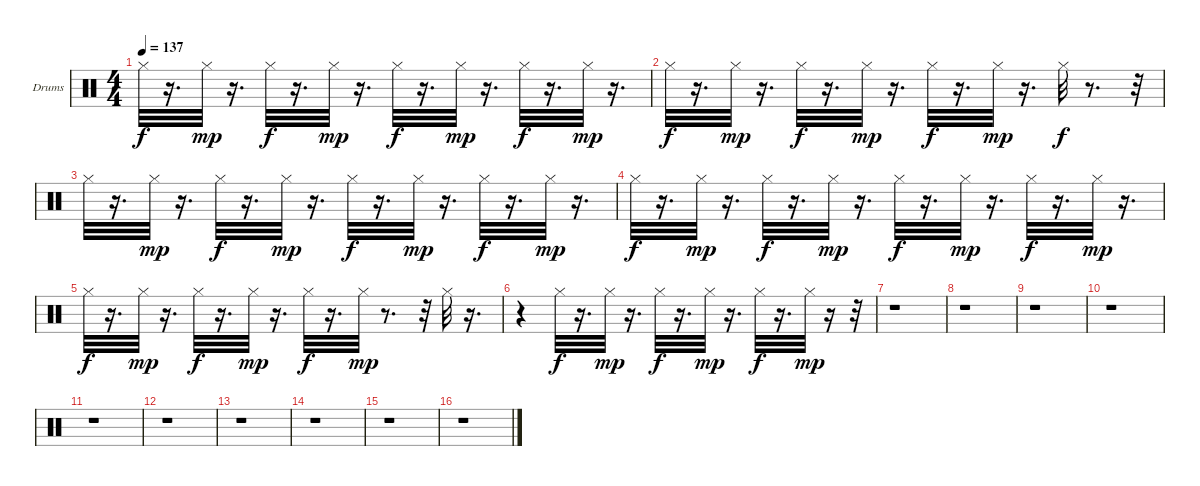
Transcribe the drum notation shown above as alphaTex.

\bracketExtendMode groupsimilarinstruments
\firstSystemTrackNameOrientation horizontal
\otherSystemsTrackNameOrientation horizontal
\track ("Drumkit" "Drums") {instrument percussion}
\staff {score}
\articulation defaults
\ts (4 4)
\tempo 137
\clef neutral
\ks c "Hi-Hat (closed)".32{dy f}
r.16{d} "Hi-Hat (closed)".32{dy mp} r.16{d} "Hi-Hat (closed)".32{dy f} r.16{d} "Hi-Hat (closed)".32{dy mp} r.16{d} "Hi-Hat (closed)".32{dy f} r.16{d} "Hi-Hat (closed)".32{dy mp} r.16{d} "Hi-Hat (closed)".32{dy f} r.16{d} "Hi-Hat (closed)".32{dy mp} r.16{d} |
"Hi-Hat (closed)".32{dy f} r.16{d} "Hi-Hat (closed)".32{dy mp} r.16{d} "Hi-Hat (closed)".32{dy f} r.16{d} "Hi-Hat (closed)".32{dy mp} r.16{d} "Hi-Hat (closed)".32{dy f} r.16{d} "Hi-Hat (closed)".32{dy mp} r.16{d} "Hi-Hat (closed)".32{dy f} r.8{d} r.32 |
"Hi-Hat (closed)".32 r.16{d} "Hi-Hat (closed)".32{dy mp} r.16{d} "Hi-Hat (closed)".32{dy f} r.16{d} "Hi-Hat (closed)".32{dy mp} r.16{d} "Hi-Hat (closed)".32{dy f} r.16{d} "Hi-Hat (closed)".32{dy mp} r.16{d} "Hi-Hat (closed)".32{dy f} r.16{d} "Hi-Hat (closed)".32{dy mp} r.16{d} |
"Hi-Hat (closed)".32{dy f} r.16{d} "Hi-Hat (closed)".32{dy mp} r.16{d} "Hi-Hat (closed)".32{dy f} r.16{d} "Hi-Hat (closed)".32{dy mp} r.16{d} "Hi-Hat (closed)".32{dy f} r.16{d} "Hi-Hat (closed)".32{dy mp} r.16{d} "Hi-Hat (closed)".32{dy f} r.16{d} "Hi-Hat (closed)".32{dy mp} r.16{d} |
"Hi-Hat (closed)".32{dy f} r.16{d} "Hi-Hat (closed)".32{dy mp} r.16{d} "Hi-Hat (closed)".32{dy f} r.16{d} "Hi-Hat (closed)".32{dy mp} r.16{d} "Hi-Hat (closed)".32{dy f} r.16{d} "Hi-Hat (closed)".32{dy mp} r.8{d} r.32 "Hi-Hat (closed)".32 r.16{d} |
r.4 "Hi-Hat (closed)".32{dy f} r.16{d} "Hi-Hat (closed)".32{dy mp} r.16{d} "Hi-Hat (closed)".32{dy f} r.16{d} "Hi-Hat (closed)".32{dy mp} r.16{d} "Hi-Hat (closed)".32{dy f} r.16{d} "Hi-Hat (closed)".32{dy mp} r.16 r.32 |
r.1 |
r.1 |
r.1 |
r.1 |
r.1 |
r.1 |
r.1 |
r.1 |
r.1 |
r.1
